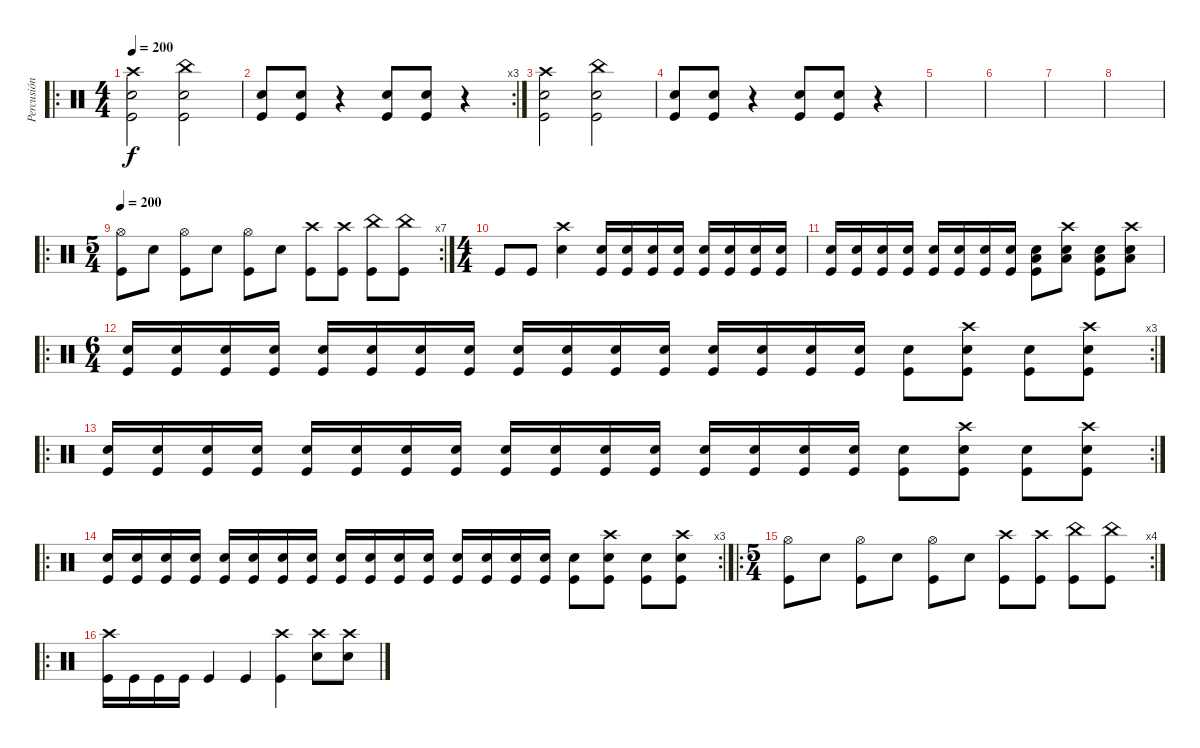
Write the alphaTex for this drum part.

\track ("Percusión" "Percusión") {instrument percussion}
\staff {score}
\articulation defaults
\ro
\ts (4 4)
\tempo 200
\tempo 120
\tempo 200
\clef neutral
\ks c
("Crash high (hit)" "Snare (hit) 2" "Kick (hit)").2{dy f} ("China (hit)" "Snare (hit) 2" "Kick (hit)").2 |
\rc 3
("Snare (hit) 2" "Kick (hit)").8 ("Snare (hit) 2" "Kick (hit)").8 r.4 ("Snare (hit) 2" "Kick (hit)").8 ("Snare (hit) 2" "Kick (hit)").8 r.4 |
("Crash high (hit)" "Snare (hit) 2" "Kick (hit)").2 ("China (hit)" "Snare (hit) 2" "Kick (hit)").2 |
("Snare (hit) 2" "Kick (hit)").8 ("Snare (hit) 2" "Kick (hit)").8 r.4 ("Snare (hit) 2" "Kick (hit)").8 ("Snare (hit) 2" "Kick (hit)").8 r.4 |
|
|
|
|
\ro
\rc 7
\ts (5 4)
\tempo 200
("Hi-Hat (open)" "Kick (hit)").8 "Snare (hit) 2".8 ("Hi-Hat (open)" "Kick (hit)").8 "Snare (hit) 2".8 ("Hi-Hat (open)" "Kick (hit)").8 "Snare (hit) 2".8 ("Crash high (hit)" "Kick (hit)").8 ("Crash high (hit)" "Kick (hit)").8 ("Kick (hit)" "China (hit)").8 ("China (hit)" "Kick (hit)").8 |
\ts (4 4)
"Kick (hit)".8 "Kick (hit)".8 ("Crash high (hit)" "Snare (hit) 2").4 ("Snare (hit) 2" "Kick (hit)").16 ("Snare (hit) 2" "Kick (hit)").16 ("Snare (hit) 2" "Kick (hit)").16 ("Snare (hit) 2" "Kick (hit)").16 ("Snare (hit) 2" "Kick (hit)").16 ("Snare (hit) 2" "Kick (hit)").16 ("Snare (hit) 2" "Kick (hit)").16 ("Snare (hit) 2" "Kick (hit)").16 |
("Snare (hit) 2" "Kick (hit)").16 ("Snare (hit) 2" "Kick (hit)").16 ("Snare (hit) 2" "Kick (hit)").16 ("Snare (hit) 2" "Kick (hit)").16 ("Snare (hit) 2" "Kick (hit)").16 ("Snare (hit) 2" "Kick (hit)").16 ("Snare (hit) 2" "Kick (hit)").16 ("Snare (hit) 2" "Kick (hit)").16 ("Electric Snare (hit)" "Low Tom (hit)" "Kick (hit)").8 ("Crash high (hit)" "Low Tom (hit)" "Electric Snare (hit)").8 ("Electric Snare (hit)" "Kick (hit)" "Low Tom (hit)").8 ("Crash high (hit)" "Electric Snare (hit)" "Low Tom (hit)").8 |
\ro
\rc 3
\ts (6 4)
("Snare (hit) 2" "Kick (hit)").16 ("Snare (hit) 2" "Kick (hit)").16 ("Snare (hit) 2" "Kick (hit)").16 ("Snare (hit) 2" "Kick (hit)").16 ("Snare (hit) 2" "Kick (hit)").16 ("Snare (hit) 2" "Kick (hit)").16 ("Snare (hit) 2" "Kick (hit)").16 ("Snare (hit) 2" "Kick (hit)").16 ("Snare (hit) 2" "Kick (hit)").16 ("Snare (hit) 2" "Kick (hit)").16 ("Snare (hit) 2" "Kick (hit)").16 ("Snare (hit) 2" "Kick (hit)").16 ("Snare (hit) 2" "Kick (hit)").16 ("Snare (hit) 2" "Kick (hit)").16 ("Snare (hit) 2" "Kick (hit)").16 ("Snare (hit) 2" "Kick (hit)").16 ("Kick (hit)" "Electric Snare (hit)").8 ("Kick (hit)" "Crash high (hit)" "Electric Snare (hit)").8 ("Kick (hit)" "Electric Snare (hit)").8 ("Kick (hit)" "Crash high (hit)" "Electric Snare (hit)").8 |
\ro
\rc 2
("Snare (hit) 2" "Kick (hit)").16 ("Snare (hit) 2" "Kick (hit)").16 ("Snare (hit) 2" "Kick (hit)").16 ("Snare (hit) 2" "Kick (hit)").16 ("Snare (hit) 2" "Kick (hit)").16 ("Snare (hit) 2" "Kick (hit)").16 ("Snare (hit) 2" "Kick (hit)").16 ("Snare (hit) 2" "Kick (hit)").16 ("Snare (hit) 2" "Kick (hit)").16 ("Snare (hit) 2" "Kick (hit)").16 ("Snare (hit) 2" "Kick (hit)").16 ("Snare (hit) 2" "Kick (hit)").16 ("Snare (hit) 2" "Kick (hit)").16 ("Snare (hit) 2" "Kick (hit)").16 ("Snare (hit) 2" "Kick (hit)").16 ("Snare (hit) 2" "Kick (hit)").16 ("Kick (hit)" "Electric Snare (hit)").8 ("Kick (hit)" "Crash high (hit)" "Electric Snare (hit)").8 ("Kick (hit)" "Electric Snare (hit)").8 ("Kick (hit)" "Crash high (hit)" "Electric Snare (hit)").8 |
\ro
\rc 3
("Snare (hit) 2" "Kick (hit)").16 ("Snare (hit) 2" "Kick (hit)").16 ("Snare (hit) 2" "Kick (hit)").16 ("Snare (hit) 2" "Kick (hit)").16 ("Snare (hit) 2" "Kick (hit)").16 ("Snare (hit) 2" "Kick (hit)").16 ("Snare (hit) 2" "Kick (hit)").16 ("Snare (hit) 2" "Kick (hit)").16 ("Snare (hit) 2" "Kick (hit)").16 ("Snare (hit) 2" "Kick (hit)").16 ("Snare (hit) 2" "Kick (hit)").16 ("Snare (hit) 2" "Kick (hit)").16 ("Snare (hit) 2" "Kick (hit)").16 ("Snare (hit) 2" "Kick (hit)").16 ("Snare (hit) 2" "Kick (hit)").16 ("Snare (hit) 2" "Kick (hit)").16 ("Kick (hit)" "Electric Snare (hit)").8 ("Kick (hit)" "Crash high (hit)" "Electric Snare (hit)").8 ("Kick (hit)" "Electric Snare (hit)").8 ("Kick (hit)" "Crash high (hit)" "Electric Snare (hit)").8 |
\ro
\rc 4
\ts (5 4)
("Hi-Hat (open)" "Kick (hit)").8 "Snare (hit) 2".8 ("Hi-Hat (open)" "Kick (hit)").8 "Snare (hit) 2".8 ("Hi-Hat (open)" "Kick (hit)").8 "Snare (hit) 2".8 ("Crash high (hit)" "Kick (hit)").8 ("Crash high (hit)" "Kick (hit)").8 ("Kick (hit)" "China (hit)").8 ("China (hit)" "Kick (hit)").8 |
\ro
("Crash high (hit)" "Kick (hit)").16 "Kick (hit)".16 "Kick (hit)".16 "Kick (hit)".16 "Kick (hit)".4 "Kick (hit)".4 ("Crash high (hit)" "Kick (hit)").4 ("Snare (hit) 2" "Crash high (hit)").8 ("Snare (hit) 2" "Crash high (hit)").8
